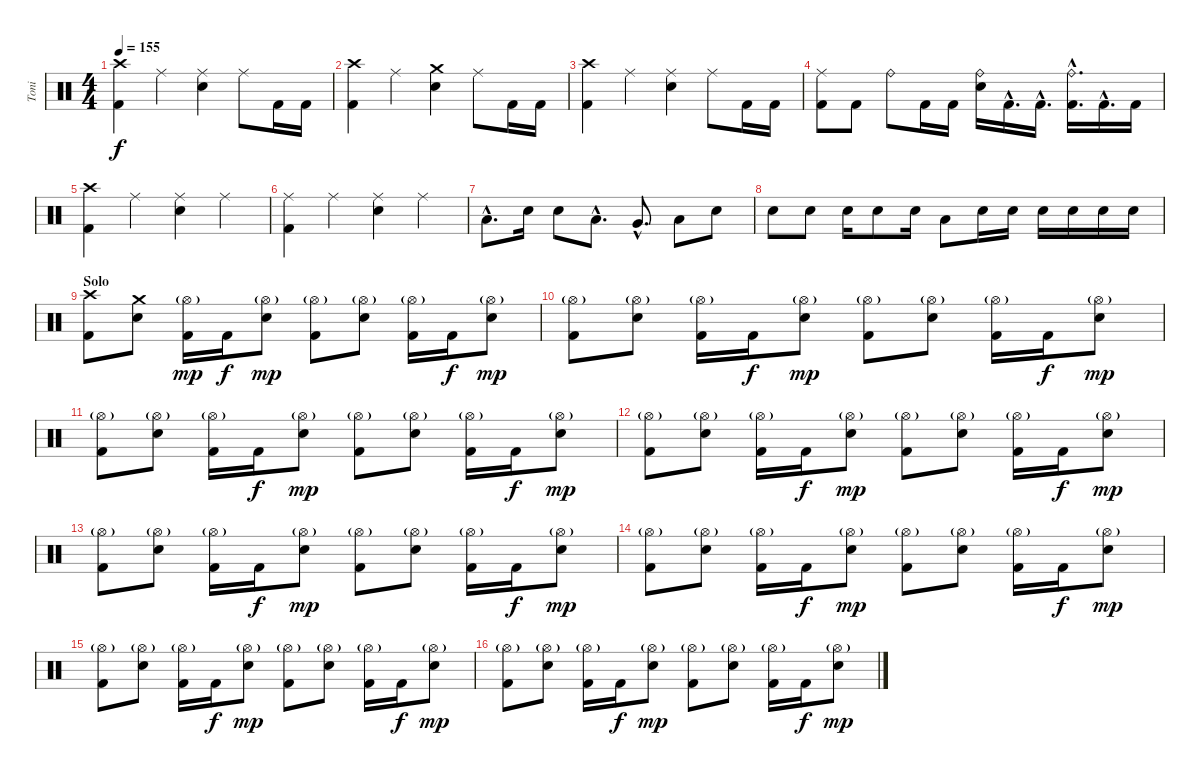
\track ("Toni" "Toni") {instrument percussion}
\staff {score}
\articulation defaults
\ts (4 4)
\tempo 155
\clef neutral
\ks c
("Crash high (hit)" "Kick (hit) 2").4{dy f} "Ride (middle)".4 ("Ride (middle)" "Electric Snare (hit)").4 "Ride (middle)".8 "Kick (hit) 2".16 "Kick (hit) 2".16 |
("Crash high (hit)" "Kick (hit) 2").4 "Ride (middle)".4 ("Crash medium (hit)" "Electric Snare (hit)").4 "Ride (middle)".8 "Kick (hit) 2".16 "Kick (hit) 2".16 |
("Crash high (hit)" "Kick (hit) 2").4 "Ride (middle)".4 ("Ride (middle)" "Electric Snare (hit)").4 "Ride (middle)".8 "Kick (hit) 2".16 "Kick (hit) 2".16 |
("Ride (middle)" "Kick (hit) 2").8 "Kick (hit) 2".8 "Ride (bell)".8 "Kick (hit) 2".16 "Kick (hit) 2".16 ("Ride (bell)" "Electric Snare (hit)").16 "Kick (hit) 2"{hac}.16{d} "Kick (hit) 2"{hac}.16{d} ("Ride (bell)"{hac} "Kick (hit) 2"{hac}).16{d} "Kick (hit) 2"{hac}.16{d} "Kick (hit) 2".16 |
("Crash high (hit)" "Kick (hit) 2").4 "Ride (middle)".4 ("Ride (middle)" "Electric Snare (hit)").4 "Ride (middle)".4 |
("Ride (middle)" "Kick (hit) 2").4 "Ride (middle)".4 ("Ride (middle)" "Electric Snare (hit)").4 "Ride (middle)".4 |
"Low Tom (hit)"{hac}.8{d} "Electric Snare (hit)".16 "Electric Snare (hit)".8 "Low Tom (hit)"{hac}.8{d} "Very Low Tom (hit)"{hac}.8{d} "Low Floor Tom (hit)".8 "Electric Snare (hit)".8 |
"Electric Snare (hit)".8 "Electric Snare (hit)".8 "Electric Snare (hit)".16 "Electric Snare (hit)".8 "Electric Snare (hit)".16 "Low Tom (hit)".8 "Electric Snare (hit)".16 "Electric Snare (hit)".16 "Electric Snare (hit)".16 "Electric Snare (hit)".16 "Electric Snare (hit)".16 "Electric Snare (hit)".16 |
\section ("" "Solo")
("Crash high (hit)" "Kick (hit) 2").8 ("Crash medium (hit)" "Electric Snare (hit)").8 ("Hi-Hat (open)"{g} "Kick (hit) 2").16{dy mp} "Kick (hit) 2".16{dy f} ("Hi-Hat (open)"{g} "Electric Snare (hit)").8{dy mp} ("Hi-Hat (open)"{g} "Kick (hit) 2").8 ("Hi-Hat (open)"{g} "Electric Snare (hit)").8 ("Hi-Hat (open)"{g} "Kick (hit) 2").16 "Kick (hit) 2".16{dy f} ("Hi-Hat (open)"{g} "Electric Snare (hit)").8{dy mp} |
("Hi-Hat (open)"{g} "Kick (hit) 2").8 ("Hi-Hat (open)"{g} "Electric Snare (hit)").8 ("Hi-Hat (open)"{g} "Kick (hit) 2").16 "Kick (hit) 2".16{dy f} ("Hi-Hat (open)"{g} "Electric Snare (hit)").8{dy mp} ("Hi-Hat (open)"{g} "Kick (hit) 2").8 ("Hi-Hat (open)"{g} "Electric Snare (hit)").8 ("Hi-Hat (open)"{g} "Kick (hit) 2").16 "Kick (hit) 2".16{dy f} ("Hi-Hat (open)"{g} "Electric Snare (hit)").8{dy mp} |
("Hi-Hat (open)"{g} "Kick (hit) 2").8 ("Hi-Hat (open)"{g} "Electric Snare (hit)").8 ("Hi-Hat (open)"{g} "Kick (hit) 2").16 "Kick (hit) 2".16{dy f} ("Hi-Hat (open)"{g} "Electric Snare (hit)").8{dy mp} ("Hi-Hat (open)"{g} "Kick (hit) 2").8 ("Hi-Hat (open)"{g} "Electric Snare (hit)").8 ("Hi-Hat (open)"{g} "Kick (hit) 2").16 "Kick (hit) 2".16{dy f} ("Hi-Hat (open)"{g} "Electric Snare (hit)").8{dy mp} |
("Hi-Hat (open)"{g} "Kick (hit) 2").8 ("Hi-Hat (open)"{g} "Electric Snare (hit)").8 ("Hi-Hat (open)"{g} "Kick (hit) 2").16 "Kick (hit) 2".16{dy f} ("Hi-Hat (open)"{g} "Electric Snare (hit)").8{dy mp} ("Hi-Hat (open)"{g} "Kick (hit) 2").8 ("Hi-Hat (open)"{g} "Electric Snare (hit)").8 ("Hi-Hat (open)"{g} "Kick (hit) 2").16 "Kick (hit) 2".16{dy f} ("Hi-Hat (open)"{g} "Electric Snare (hit)").8{dy mp} |
("Hi-Hat (open)"{g} "Kick (hit) 2").8 ("Hi-Hat (open)"{g} "Electric Snare (hit)").8 ("Hi-Hat (open)"{g} "Kick (hit) 2").16 "Kick (hit) 2".16{dy f} ("Hi-Hat (open)"{g} "Electric Snare (hit)").8{dy mp} ("Hi-Hat (open)"{g} "Kick (hit) 2").8 ("Hi-Hat (open)"{g} "Electric Snare (hit)").8 ("Hi-Hat (open)"{g} "Kick (hit) 2").16 "Kick (hit) 2".16{dy f} ("Hi-Hat (open)"{g} "Electric Snare (hit)").8{dy mp} |
("Hi-Hat (open)"{g} "Kick (hit) 2").8 ("Hi-Hat (open)"{g} "Electric Snare (hit)").8 ("Hi-Hat (open)"{g} "Kick (hit) 2").16 "Kick (hit) 2".16{dy f} ("Hi-Hat (open)"{g} "Electric Snare (hit)").8{dy mp} ("Hi-Hat (open)"{g} "Kick (hit) 2").8 ("Hi-Hat (open)"{g} "Electric Snare (hit)").8 ("Hi-Hat (open)"{g} "Kick (hit) 2").16 "Kick (hit) 2".16{dy f} ("Hi-Hat (open)"{g} "Electric Snare (hit)").8{dy mp} |
("Hi-Hat (open)"{g} "Kick (hit) 2").8 ("Hi-Hat (open)"{g} "Electric Snare (hit)").8 ("Hi-Hat (open)"{g} "Kick (hit) 2").16 "Kick (hit) 2".16{dy f} ("Hi-Hat (open)"{g} "Electric Snare (hit)").8{dy mp} ("Hi-Hat (open)"{g} "Kick (hit) 2").8 ("Hi-Hat (open)"{g} "Electric Snare (hit)").8 ("Hi-Hat (open)"{g} "Kick (hit) 2").16 "Kick (hit) 2".16{dy f} ("Hi-Hat (open)"{g} "Electric Snare (hit)").8{dy mp} |
("Hi-Hat (open)"{g} "Kick (hit) 2").8 ("Hi-Hat (open)"{g} "Electric Snare (hit)").8 ("Hi-Hat (open)"{g} "Kick (hit) 2").16 "Kick (hit) 2".16{dy f} ("Hi-Hat (open)"{g} "Electric Snare (hit)").8{dy mp} ("Hi-Hat (open)"{g} "Kick (hit) 2").8 ("Hi-Hat (open)"{g} "Electric Snare (hit)").8 ("Hi-Hat (open)"{g} "Kick (hit) 2").16 "Kick (hit) 2".16{dy f} ("Hi-Hat (open)"{g} "Electric Snare (hit)").8{dy mp}
